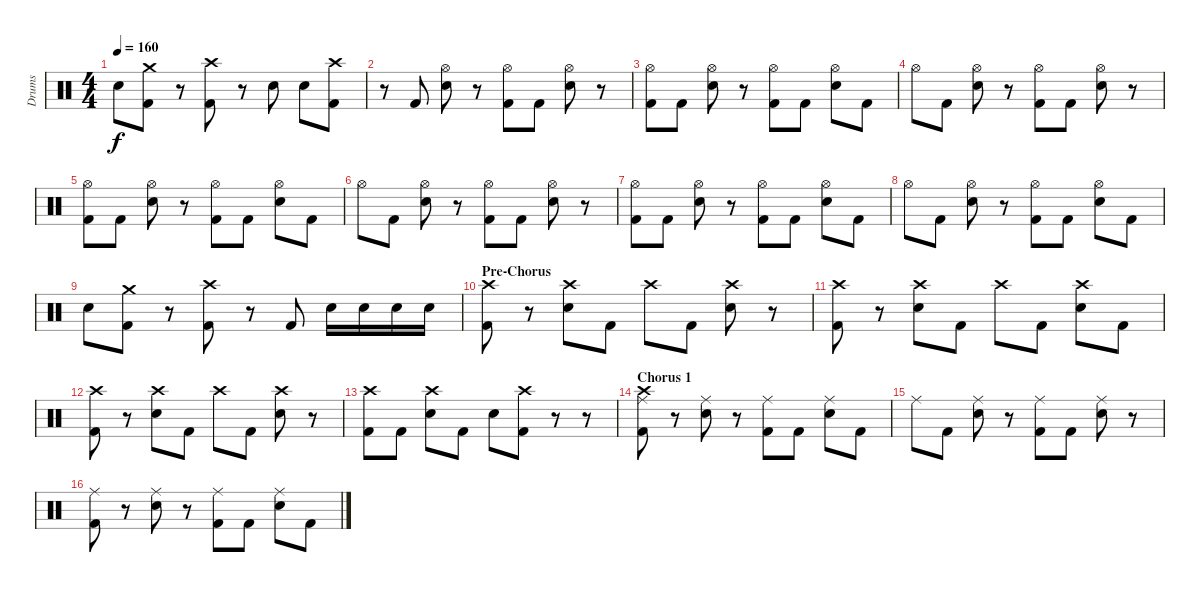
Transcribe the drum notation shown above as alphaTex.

\track ("Drums" "Drums") {instrument percussion}
\staff {score}
\articulation defaults
\ts (4 4)
\tempo 160
\clef neutral
\ks c "Snare (hit) 2".8{dy f}
("Crash medium (hit)" "Kick (hit) 2").8 r.8 ("Crash high (hit)" "Kick (hit) 2").8 r.8 "Snare (hit) 2".8 "Snare (hit) 2".8 ("Crash high (hit)" "Kick (hit) 2").8 |
r.8 "Kick (hit) 2".8 ("Hi-Hat (open)" "Snare (hit) 2").8 r.8 ("Hi-Hat (open)" "Kick (hit) 2").8 "Kick (hit) 2".8 ("Hi-Hat (open)" "Snare (hit) 2").8 r.8 |
("Hi-Hat (open)" "Kick (hit) 2").8 "Kick (hit) 2".8 ("Hi-Hat (open)" "Snare (hit) 2").8 r.8 ("Hi-Hat (open)" "Kick (hit) 2").8 "Kick (hit) 2".8 ("Hi-Hat (open)" "Snare (hit) 2").8 "Kick (hit) 2".8 |
"Hi-Hat (open)".8 "Kick (hit) 2".8 ("Hi-Hat (open)" "Snare (hit) 2").8 r.8 ("Hi-Hat (open)" "Kick (hit) 2").8 "Kick (hit) 2".8 ("Hi-Hat (open)" "Snare (hit) 2").8 r.8 |
("Hi-Hat (open)" "Kick (hit) 2").8 "Kick (hit) 2".8 ("Hi-Hat (open)" "Snare (hit) 2").8 r.8 ("Hi-Hat (open)" "Kick (hit) 2").8 "Kick (hit) 2".8 ("Hi-Hat (open)" "Snare (hit) 2").8 "Kick (hit) 2".8 |
"Hi-Hat (open)".8 "Kick (hit) 2".8 ("Hi-Hat (open)" "Snare (hit) 2").8 r.8 ("Hi-Hat (open)" "Kick (hit) 2").8 "Kick (hit) 2".8 ("Hi-Hat (open)" "Snare (hit) 2").8 r.8 |
("Hi-Hat (open)" "Kick (hit) 2").8 "Kick (hit) 2".8 ("Hi-Hat (open)" "Snare (hit) 2").8 r.8 ("Hi-Hat (open)" "Kick (hit) 2").8 "Kick (hit) 2".8 ("Hi-Hat (open)" "Snare (hit) 2").8 "Kick (hit) 2".8 |
"Hi-Hat (open)".8 "Kick (hit) 2".8 ("Hi-Hat (open)" "Snare (hit) 2").8 r.8 ("Hi-Hat (open)" "Kick (hit) 2").8 "Kick (hit) 2".8 ("Hi-Hat (open)" "Snare (hit) 2").8 "Kick (hit) 2".8 |
"Snare (hit) 2".8 ("Crash medium (hit)" "Kick (hit) 2").8 r.8 ("Crash high (hit)" "Kick (hit) 2").8 r.8 "Kick (hit) 2".8 "Snare (hit) 2".16 "Snare (hit) 2".16 "Snare (hit) 2".16 "Snare (hit) 2".16 |
\section ("" "Pre-Chorus")
("Crash high (hit)" "Kick (hit) 2").8 r.8 ("Crash high (hit)" "Snare (hit) 2").8 "Kick (hit) 2".8 "Crash high (hit)".8 "Kick (hit) 2".8 ("Crash high (hit)" "Snare (hit) 2").8 r.8 |
("Crash high (hit)" "Kick (hit) 2").8 r.8 ("Crash high (hit)" "Snare (hit) 2").8 "Kick (hit) 2".8 "Crash high (hit)".8 "Kick (hit) 2".8 ("Crash high (hit)" "Snare (hit) 2").8 "Kick (hit) 2".8 |
("Crash high (hit)" "Kick (hit) 2").8 r.8 ("Crash high (hit)" "Snare (hit) 2").8 "Kick (hit) 2".8 "Crash high (hit)".8 "Kick (hit) 2".8 ("Crash high (hit)" "Snare (hit) 2").8 r.8 |
("Crash high (hit)" "Kick (hit) 2").8 "Kick (hit) 2".8 ("Crash high (hit)" "Snare (hit) 2").8 "Kick (hit) 2".8 "Snare (hit) 2".8 ("Crash high (hit)" "Kick (hit) 2").8 r.8 r.8 |
\section ("" "Chorus 1")
("Ride (middle)" "Crash high (hit)" "Kick (hit) 2").8 r.8 ("Ride (middle)" "Snare (hit) 2").8 r.8 ("Ride (middle)" "Kick (hit) 2").8 "Kick (hit) 2".8 ("Ride (middle)" "Snare (hit) 2").8 "Kick (hit) 2".8 |
"Ride (middle)".8 "Kick (hit) 2".8 ("Ride (middle)" "Snare (hit) 2").8 r.8 ("Ride (middle)" "Kick (hit) 2").8 "Kick (hit) 2".8 ("Ride (middle)" "Snare (hit) 2").8 r.8 |
("Ride (middle)" "Kick (hit) 2").8 r.8 ("Ride (middle)" "Snare (hit) 2").8 r.8 ("Ride (middle)" "Kick (hit) 2").8 "Kick (hit) 2".8 ("Ride (middle)" "Snare (hit) 2").8 "Kick (hit) 2".8
